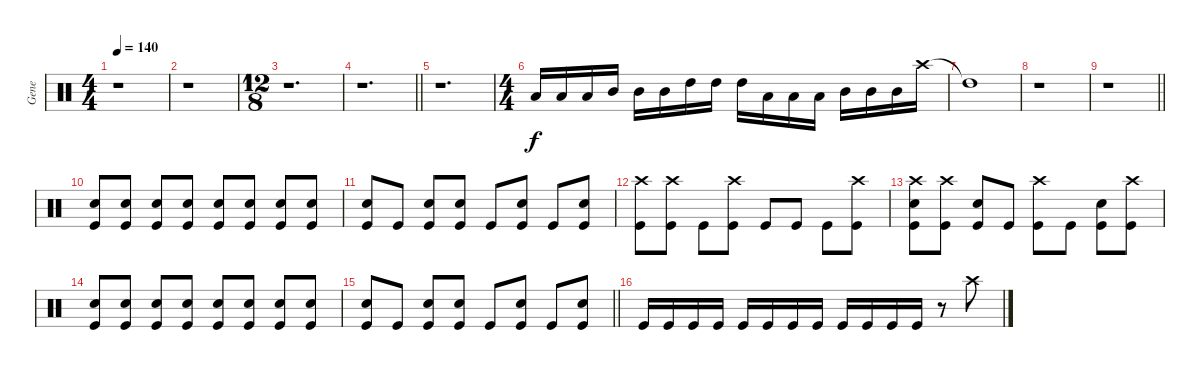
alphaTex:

\track ("Gene" "Gene") {instrument percussion}
\staff
\articulation defaults
\ts (4 4)
\tempo 140
\clef neutral
\ks c
r.1{dy f} |
r.1 |
\ts (12 8)
r.1{d} |
\barLineRight lightlight
r.1{d} |
r.1{d} |
\ts (4 4)
"Low Tom (hit)".16 "Low Tom (hit)".16 "Low Tom (hit)".16 "Mid Tom (hit)".16 "Mid Tom (hit)".16 "Mid Tom (hit)".16 "High Tom (hit)".16 "High Tom (hit)".16 "High Tom (hit)".16 "Low Tom (hit)".16 "Low Tom (hit)".16 "Low Tom (hit)".16 "Mid Tom (hit)".16 "Mid Tom (hit)".16 "Mid Tom (hit)".16 "Crash high (hit)".16 |
"High Tom (hit)"{t}.1 |
r.1 |
\barLineRight lightlight
r.1 |
("Snare (hit) 2" "Kick (hit)").8 ("Snare (hit) 2" "Kick (hit)").8 ("Snare (hit) 2" "Kick (hit)").8 ("Snare (hit) 2" "Kick (hit)").8 ("Snare (hit) 2" "Kick (hit)").8 ("Snare (hit) 2" "Kick (hit)").8 ("Snare (hit) 2" "Kick (hit)").8 ("Snare (hit) 2" "Kick (hit)").8 |
("Snare (hit) 2" "Kick (hit)").8 "Kick (hit)".8 ("Snare (hit) 2" "Kick (hit)").8 ("Snare (hit) 2" "Kick (hit)").8 "Kick (hit)".8 ("Snare (hit) 2" "Kick (hit)").8 "Kick (hit)".8 ("Snare (hit) 2" "Kick (hit)").8 |
("Crash high (hit)" "Kick (hit)").8 ("Crash high (hit)" "Kick (hit)").8 "Kick (hit)".8 ("Crash high (hit)" "Kick (hit)").8 "Kick (hit)".8 "Kick (hit)".8 "Kick (hit)".8 ("Crash high (hit)" "Kick (hit)").8 |
("Snare (hit) 2" "Crash high (hit)" "Kick (hit)").8 ("Crash high (hit)" "Kick (hit)").8 ("Snare (hit) 2" "Kick (hit)").8 "Kick (hit)".8 ("Crash high (hit)" "Kick (hit)").8 "Kick (hit)".8 ("Snare (hit) 2" "Kick (hit)").8 ("Crash high (hit)" "Kick (hit)").8 |
("Snare (hit) 2" "Kick (hit)").8 ("Snare (hit) 2" "Kick (hit)").8 ("Snare (hit) 2" "Kick (hit)").8 ("Snare (hit) 2" "Kick (hit)").8 ("Snare (hit) 2" "Kick (hit)").8 ("Snare (hit) 2" "Kick (hit)").8 ("Snare (hit) 2" "Kick (hit)").8 ("Snare (hit) 2" "Kick (hit)").8 |
\barLineRight lightlight
("Snare (hit) 2" "Kick (hit)").8 "Kick (hit)".8 ("Snare (hit) 2" "Kick (hit)").8 ("Snare (hit) 2" "Kick (hit)").8 "Kick (hit)".8 ("Snare (hit) 2" "Kick (hit)").8 "Kick (hit)".8 ("Snare (hit) 2" "Kick (hit)").8 |
"Kick (hit)".16 "Kick (hit)".16 "Kick (hit)".16 "Kick (hit)".16 "Kick (hit)".16 "Kick (hit)".16 "Kick (hit)".16 "Kick (hit)".16 "Kick (hit)".16 "Kick (hit)".16 "Kick (hit)".16 "Kick (hit)".16 r.8 "Crash high (hit)".8
